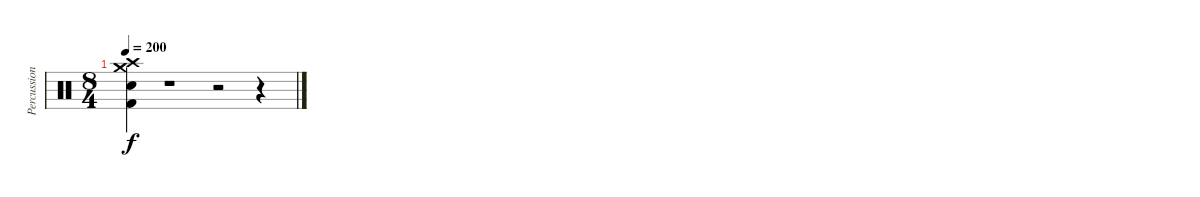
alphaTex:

\track ("Percussion" "Percussion") {instrument percussion}
\staff {score}
\articulation defaults
\ts (8 4)
\tempo 200
\clef neutral
\ks c
("Crash high (hit)" "Crash medium (hit)" "Electric Snare (hit)" "Kick (hit) 2").4{dy f} r.1 r.2 r.4
